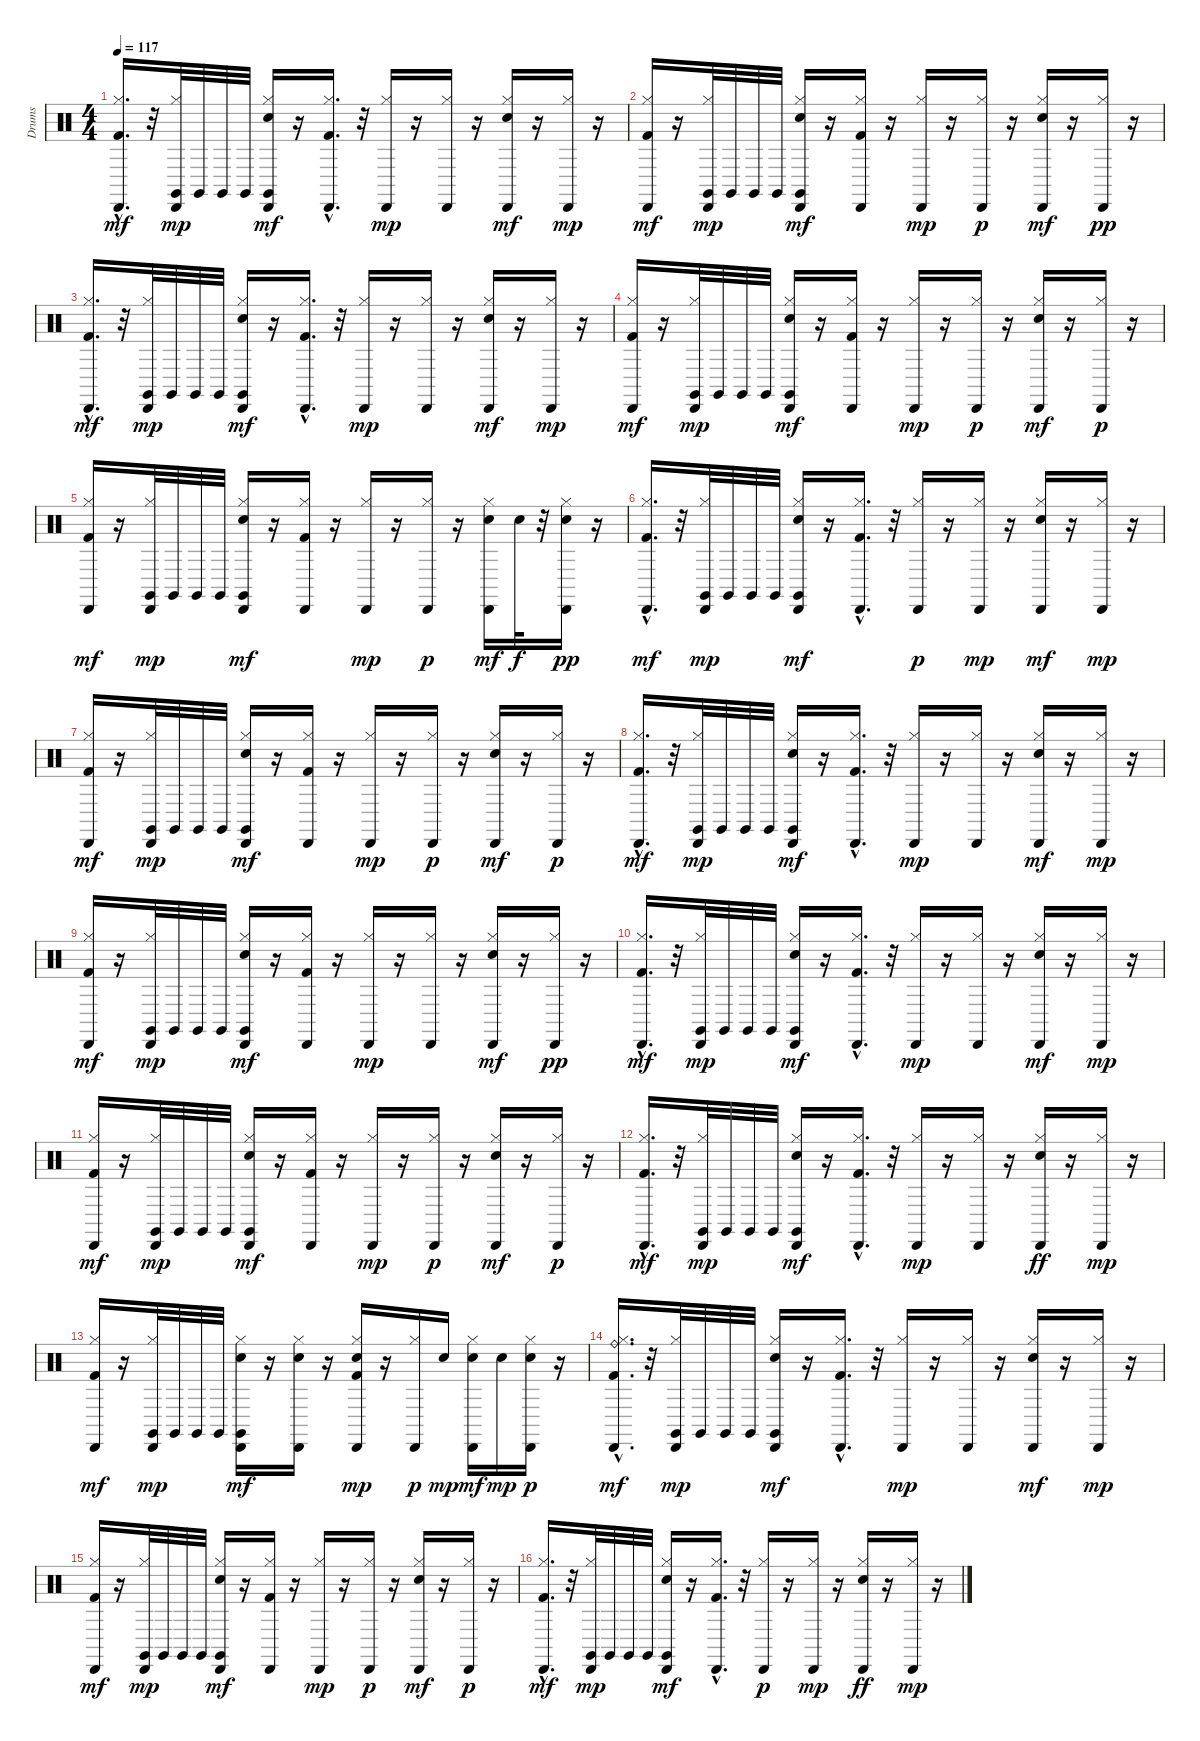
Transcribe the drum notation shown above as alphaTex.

\track ("Drums" "Drums") {instrument percussion}
\staff {score}
\articulation defaults
\ts (4 4)
\tempo 117
\clef neutral
\ks c
("Kick (hit) 2"{hac} "Hi-Hat (closed)" "Cabasa (hit)").16{d dy mf} r.32 ("Hi-Hat (closed)" "Cabasa (hit)" "Claves (hit)").32{dy mp} "Claves (hit)".32 "Claves (hit)".32 "Claves (hit)".32 ("Electric Snare (hit)" "Hi-Hat (closed)" "Cabasa (hit)" "Claves (hit)").16{dy mf} r.16 ("Kick (hit) 2"{hac} "Hi-Hat (closed)" "Cabasa (hit)").16{d} r.32 ("Hi-Hat (closed)" "Cabasa (hit)").16{dy mp} r.16 ("Hi-Hat (closed)" "Cabasa (hit)").16 r.16 ("Electric Snare (hit)" "Hi-Hat (closed)" "Cabasa (hit)").16{dy mf} r.16 ("Hi-Hat (closed)" "Cabasa (hit)").16{dy mp} r.16 |
("Kick (hit) 2" "Hi-Hat (closed)" "Cabasa (hit)").16{dy mf} r.16 ("Hi-Hat (closed)" "Cabasa (hit)" "Claves (hit)").32{dy mp} "Claves (hit)".32 "Claves (hit)".32 "Claves (hit)".32 ("Electric Snare (hit)" "Hi-Hat (closed)" "Cabasa (hit)" "Claves (hit)").16{dy mf} r.16 ("Kick (hit) 2" "Hi-Hat (closed)" "Cabasa (hit)").16 r.16 ("Hi-Hat (closed)" "Cabasa (hit)").16{dy mp} r.16 ("Hi-Hat (closed)" "Cabasa (hit)").16{dy p} r.16 ("Electric Snare (hit)" "Hi-Hat (closed)" "Cabasa (hit)").16{dy mf} r.16 ("Hi-Hat (closed)" "Cabasa (hit)").16{dy pp} r.16 |
("Kick (hit) 2"{hac} "Hi-Hat (closed)" "Cabasa (hit)").16{d dy mf} r.32 ("Hi-Hat (closed)" "Cabasa (hit)" "Claves (hit)").32{dy mp} "Claves (hit)".32 "Claves (hit)".32 "Claves (hit)".32 ("Electric Snare (hit)" "Hi-Hat (closed)" "Cabasa (hit)" "Claves (hit)").16{dy mf} r.16 ("Kick (hit) 2"{hac} "Hi-Hat (closed)" "Cabasa (hit)").16{d} r.32 ("Hi-Hat (closed)" "Cabasa (hit)").16{dy mp} r.16 ("Hi-Hat (closed)" "Cabasa (hit)").16 r.16 ("Electric Snare (hit)" "Hi-Hat (closed)" "Cabasa (hit)").16{dy mf} r.16 ("Hi-Hat (closed)" "Cabasa (hit)").16{dy mp} r.16 |
("Kick (hit) 2" "Hi-Hat (closed)" "Cabasa (hit)").16{dy mf} r.16 ("Hi-Hat (closed)" "Cabasa (hit)" "Claves (hit)").32{dy mp} "Claves (hit)".32 "Claves (hit)".32 "Claves (hit)".32 ("Electric Snare (hit)" "Hi-Hat (closed)" "Cabasa (hit)" "Claves (hit)").16{dy mf} r.16 ("Kick (hit) 2" "Hi-Hat (closed)" "Cabasa (hit)").16 r.16 ("Hi-Hat (closed)" "Cabasa (hit)").16{dy mp} r.16 ("Hi-Hat (closed)" "Cabasa (hit)").16{dy p} r.16 ("Electric Snare (hit)" "Hi-Hat (closed)" "Cabasa (hit)").16{dy mf} r.16 ("Hi-Hat (closed)" "Cabasa (hit)").16{dy p} r.16 |
("Kick (hit) 2" "Hi-Hat (closed)" "Cabasa (hit)").16{dy mf} r.16 ("Hi-Hat (closed)" "Cabasa (hit)" "Claves (hit)").32{dy mp} "Claves (hit)".32 "Claves (hit)".32 "Claves (hit)".32 ("Electric Snare (hit)" "Hi-Hat (closed)" "Cabasa (hit)" "Claves (hit)").16{dy mf} r.16 ("Kick (hit) 2" "Hi-Hat (closed)" "Cabasa (hit)").16 r.16 ("Hi-Hat (closed)" "Cabasa (hit)").16{dy mp} r.16 ("Hi-Hat (closed)" "Cabasa (hit)").16{dy p} r.16 ("Electric Snare (hit)" "Hi-Hat (closed)" "Cabasa (hit)").16{dy mf} "Electric Snare (hit)".32{dy f} r.32 ("Electric Snare (hit)" "Hi-Hat (closed)" "Cabasa (hit)").16{dy pp} r.16 |
("Kick (hit) 2"{hac} "Hi-Hat (closed)" "Cabasa (hit)").16{d dy mf} r.32 ("Hi-Hat (closed)" "Cabasa (hit)" "Claves (hit)").32{dy mp} "Claves (hit)".32 "Claves (hit)".32 "Claves (hit)".32 ("Electric Snare (hit)" "Hi-Hat (closed)" "Cabasa (hit)" "Claves (hit)").16{dy mf} r.16 ("Kick (hit) 2"{hac} "Hi-Hat (closed)" "Cabasa (hit)").16{d} r.32 ("Hi-Hat (closed)" "Cabasa (hit)").16{dy p} r.16 ("Hi-Hat (closed)" "Cabasa (hit)").16{dy mp} r.16 ("Electric Snare (hit)" "Hi-Hat (closed)" "Cabasa (hit)").16{dy mf} r.16 ("Hi-Hat (closed)" "Cabasa (hit)").16{dy mp} r.16 |
("Kick (hit) 2" "Hi-Hat (closed)" "Cabasa (hit)").16{dy mf} r.16 ("Hi-Hat (closed)" "Cabasa (hit)" "Claves (hit)").32{dy mp} "Claves (hit)".32 "Claves (hit)".32 "Claves (hit)".32 ("Electric Snare (hit)" "Hi-Hat (closed)" "Cabasa (hit)" "Claves (hit)").16{dy mf} r.16 ("Kick (hit) 2" "Hi-Hat (closed)" "Cabasa (hit)").16 r.16 ("Hi-Hat (closed)" "Cabasa (hit)").16{dy mp} r.16 ("Hi-Hat (closed)" "Cabasa (hit)").16{dy p} r.16 ("Electric Snare (hit)" "Hi-Hat (closed)" "Cabasa (hit)").16{dy mf} r.16 ("Hi-Hat (closed)" "Cabasa (hit)").16{dy p} r.16 |
("Kick (hit) 2"{hac} "Hi-Hat (closed)" "Cabasa (hit)").16{d dy mf} r.32 ("Hi-Hat (closed)" "Cabasa (hit)" "Claves (hit)").32{dy mp} "Claves (hit)".32 "Claves (hit)".32 "Claves (hit)".32 ("Electric Snare (hit)" "Hi-Hat (closed)" "Cabasa (hit)" "Claves (hit)").16{dy mf} r.16 ("Kick (hit) 2"{hac} "Hi-Hat (closed)" "Cabasa (hit)").16{d} r.32 ("Hi-Hat (closed)" "Cabasa (hit)").16{dy mp} r.16 ("Hi-Hat (closed)" "Cabasa (hit)").16 r.16 ("Electric Snare (hit)" "Hi-Hat (closed)" "Cabasa (hit)").16{dy mf} r.16 ("Hi-Hat (closed)" "Cabasa (hit)").16{dy mp} r.16 |
("Kick (hit) 2" "Hi-Hat (closed)" "Cabasa (hit)").16{dy mf} r.16 ("Hi-Hat (closed)" "Cabasa (hit)" "Claves (hit)").32{dy mp} "Claves (hit)".32 "Claves (hit)".32 "Claves (hit)".32 ("Electric Snare (hit)" "Hi-Hat (closed)" "Cabasa (hit)" "Claves (hit)").16{dy mf} r.16 ("Kick (hit) 2" "Hi-Hat (closed)" "Cabasa (hit)").16 r.16 ("Hi-Hat (closed)" "Cabasa (hit)").16{dy mp} r.16 ("Hi-Hat (closed)" "Cabasa (hit)").16 r.16 ("Electric Snare (hit)" "Hi-Hat (closed)" "Cabasa (hit)").16{dy mf} r.16 ("Hi-Hat (closed)" "Cabasa (hit)").16{dy pp} r.16 |
("Kick (hit) 2"{hac} "Hi-Hat (closed)" "Cabasa (hit)").16{d dy mf} r.32 ("Hi-Hat (closed)" "Cabasa (hit)" "Claves (hit)").32{dy mp} "Claves (hit)".32 "Claves (hit)".32 "Claves (hit)".32 ("Electric Snare (hit)" "Hi-Hat (closed)" "Cabasa (hit)" "Claves (hit)").16{dy mf} r.16 ("Kick (hit) 2"{hac} "Hi-Hat (closed)" "Cabasa (hit)").16{d} r.32 ("Hi-Hat (closed)" "Cabasa (hit)").16{dy mp} r.16 ("Hi-Hat (closed)" "Cabasa (hit)").16 r.16 ("Electric Snare (hit)" "Hi-Hat (closed)" "Cabasa (hit)").16{dy mf} r.16 ("Hi-Hat (closed)" "Cabasa (hit)").16{dy mp} r.16 |
("Kick (hit) 2" "Hi-Hat (closed)" "Cabasa (hit)").16{dy mf} r.16 ("Hi-Hat (closed)" "Cabasa (hit)" "Claves (hit)").32{dy mp} "Claves (hit)".32 "Claves (hit)".32 "Claves (hit)".32 ("Electric Snare (hit)" "Hi-Hat (closed)" "Cabasa (hit)" "Claves (hit)").16{dy mf} r.16 ("Kick (hit) 2" "Hi-Hat (closed)" "Cabasa (hit)").16 r.16 ("Hi-Hat (closed)" "Cabasa (hit)").16{dy mp} r.16 ("Hi-Hat (closed)" "Cabasa (hit)").16{dy p} r.16 ("Electric Snare (hit)" "Hi-Hat (closed)" "Cabasa (hit)").16{dy mf} r.16 ("Hi-Hat (closed)" "Cabasa (hit)").16{dy p} r.16 |
("Kick (hit) 2"{hac} "Hi-Hat (closed)" "Cabasa (hit)").16{d dy mf} r.32 ("Hi-Hat (closed)" "Cabasa (hit)" "Claves (hit)").32{dy mp} "Claves (hit)".32 "Claves (hit)".32 "Claves (hit)".32 ("Electric Snare (hit)" "Hi-Hat (closed)" "Cabasa (hit)" "Claves (hit)").16{dy mf} r.16 ("Kick (hit) 2"{hac} "Hi-Hat (closed)" "Cabasa (hit)").16{d} r.32 ("Hi-Hat (closed)" "Cabasa (hit)").16{dy mp} r.16 ("Hi-Hat (closed)" "Cabasa (hit)").16 r.16 ("Electric Snare (hit)" "Hi-Hat (closed)" "Cabasa (hit)").16{dy ff} r.16 ("Hi-Hat (closed)" "Cabasa (hit)").16{dy mp} r.16 |
("Kick (hit) 2" "Hi-Hat (closed)" "Cabasa (hit)").16{dy mf} r.16 ("Hi-Hat (closed)" "Cabasa (hit)" "Claves (hit)").32{dy mp} "Claves (hit)".32 "Claves (hit)".32 "Claves (hit)".32 ("Electric Snare (hit)" "Hi-Hat (closed)" "Cabasa (hit)" "Claves (hit)").16{dy mf} r.16 ("Electric Snare (hit)" "Hi-Hat (closed)" "Cabasa (hit)").16 r.16 ("Kick (hit) 2" "Electric Snare (hit)" "Hi-Hat (closed)" "Cabasa (hit)").16{dy mp} r.16 ("Hi-Hat (closed)" "Cabasa (hit)").16{dy p} "Electric Snare (hit)".16{dy mp} ("Electric Snare (hit)" "Hi-Hat (closed)" "Cabasa (hit)").16{dy mf} "Electric Snare (hit)".16{dy mp} ("Electric Snare (hit)" "Hi-Hat (closed)" "Cabasa (hit)").16{dy p} r.16 |
("Kick (hit) 2"{hac} "Hi-Hat (closed)" "Ride (bell)" "Cabasa (hit)").16{d dy mf} r.32 ("Hi-Hat (closed)" "Cabasa (hit)" "Claves (hit)").32{dy mp} "Claves (hit)".32 "Claves (hit)".32 "Claves (hit)".32 ("Electric Snare (hit)" "Hi-Hat (closed)" "Cabasa (hit)" "Claves (hit)").16{dy mf} r.16 ("Kick (hit) 2"{hac} "Hi-Hat (closed)" "Cabasa (hit)").16{d} r.32 ("Hi-Hat (closed)" "Cabasa (hit)").16{dy mp} r.16 ("Hi-Hat (closed)" "Cabasa (hit)").16 r.16 ("Electric Snare (hit)" "Hi-Hat (closed)" "Cabasa (hit)").16{dy mf} r.16 ("Hi-Hat (closed)" "Cabasa (hit)").16{dy mp} r.16 |
("Kick (hit) 2" "Hi-Hat (closed)" "Cabasa (hit)").16{dy mf} r.16 ("Hi-Hat (closed)" "Cabasa (hit)" "Claves (hit)").32{dy mp} "Claves (hit)".32 "Claves (hit)".32 "Claves (hit)".32 ("Electric Snare (hit)" "Hi-Hat (closed)" "Cabasa (hit)" "Claves (hit)").16{dy mf} r.16 ("Kick (hit) 2" "Hi-Hat (closed)" "Cabasa (hit)").16 r.16 ("Hi-Hat (closed)" "Cabasa (hit)").16{dy mp} r.16 ("Hi-Hat (closed)" "Cabasa (hit)").16{dy p} r.16 ("Electric Snare (hit)" "Hi-Hat (closed)" "Cabasa (hit)").16{dy mf} r.16 ("Hi-Hat (closed)" "Cabasa (hit)").16{dy p} r.16 |
("Kick (hit) 2"{hac} "Hi-Hat (closed)" "Cabasa (hit)").16{d dy mf} r.32 ("Hi-Hat (closed)" "Cabasa (hit)" "Claves (hit)").32{dy mp} "Claves (hit)".32 "Claves (hit)".32 "Claves (hit)".32 ("Electric Snare (hit)" "Hi-Hat (closed)" "Cabasa (hit)" "Claves (hit)").16{dy mf} r.16 ("Kick (hit) 2"{hac} "Hi-Hat (closed)" "Cabasa (hit)").16{d} r.32 ("Hi-Hat (closed)" "Cabasa (hit)").16{dy p} r.16 ("Hi-Hat (closed)" "Cabasa (hit)").16{dy mp} r.16 ("Electric Snare (hit)" "Hi-Hat (closed)" "Cabasa (hit)").16{dy ff} r.16 ("Hi-Hat (closed)" "Cabasa (hit)").16{dy mp} r.16
